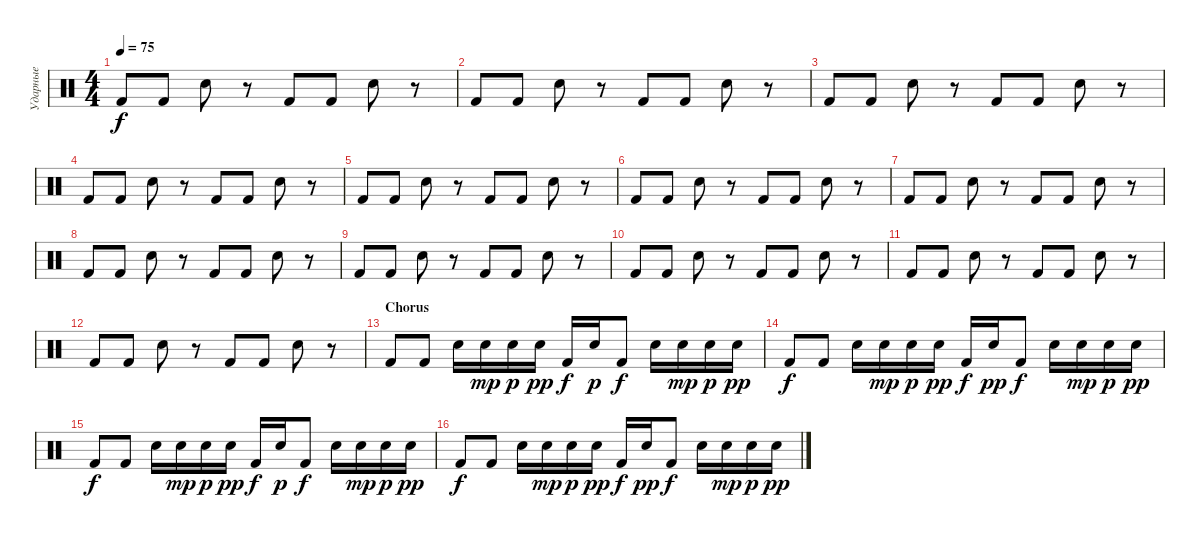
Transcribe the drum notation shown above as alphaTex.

\track ("Ударные" "Ударные") {instrument percussion}
\staff {score}
\articulation defaults
\ts (4 4)
\tempo 75
\clef neutral
\ks c "Kick (hit) 2".8{dy f} "Kick (hit) 2".8 "Snare (hit) 2".8
r.8 "Kick (hit) 2".8 "Kick (hit) 2".8 "Snare (hit) 2".8 r.8 |
"Kick (hit) 2".8 "Kick (hit) 2".8 "Snare (hit) 2".8 r.8 "Kick (hit) 2".8 "Kick (hit) 2".8 "Snare (hit) 2".8 r.8 |
"Kick (hit) 2".8 "Kick (hit) 2".8 "Snare (hit) 2".8 r.8 "Kick (hit) 2".8 "Kick (hit) 2".8 "Snare (hit) 2".8 r.8 |
"Kick (hit) 2".8 "Kick (hit) 2".8 "Snare (hit) 2".8 r.8 "Kick (hit) 2".8 "Kick (hit) 2".8 "Snare (hit) 2".8 r.8 |
"Kick (hit) 2".8 "Kick (hit) 2".8 "Snare (hit) 2".8 r.8 "Kick (hit) 2".8 "Kick (hit) 2".8 "Snare (hit) 2".8 r.8 |
"Kick (hit) 2".8 "Kick (hit) 2".8 "Snare (hit) 2".8 r.8 "Kick (hit) 2".8 "Kick (hit) 2".8 "Snare (hit) 2".8 r.8 |
"Kick (hit) 2".8 "Kick (hit) 2".8 "Snare (hit) 2".8 r.8 "Kick (hit) 2".8 "Kick (hit) 2".8 "Snare (hit) 2".8 r.8 |
"Kick (hit) 2".8 "Kick (hit) 2".8 "Snare (hit) 2".8 r.8 "Kick (hit) 2".8 "Kick (hit) 2".8 "Snare (hit) 2".8 r.8 |
"Kick (hit) 2".8 "Kick (hit) 2".8 "Snare (hit) 2".8 r.8 "Kick (hit) 2".8 "Kick (hit) 2".8 "Snare (hit) 2".8 r.8 |
"Kick (hit) 2".8 "Kick (hit) 2".8 "Snare (hit) 2".8 r.8 "Kick (hit) 2".8 "Kick (hit) 2".8 "Snare (hit) 2".8 r.8 |
"Kick (hit) 2".8 "Kick (hit) 2".8 "Snare (hit) 2".8 r.8 "Kick (hit) 2".8 "Kick (hit) 2".8 "Snare (hit) 2".8 r.8 |
"Kick (hit) 2".8 "Kick (hit) 2".8 "Snare (hit) 2".8 r.8 "Kick (hit) 2".8 "Kick (hit) 2".8 "Snare (hit) 2".8 r.8 |
\section ("" "Chorus")
"Kick (hit) 2".8 "Kick (hit) 2".8 "Snare (hit) 2".16 "Snare (hit) 2".16{dy mp} "Snare (hit) 2".16{dy p} "Snare (hit) 2".16{dy pp} "Kick (hit) 2".16{dy f} "Snare (hit) 2".16{dy p} "Kick (hit) 2".8{dy f} "Snare (hit) 2".16 "Snare (hit) 2".16{dy mp} "Snare (hit) 2".16{dy p} "Snare (hit) 2".16{dy pp} |
"Kick (hit) 2".8{dy f} "Kick (hit) 2".8 "Snare (hit) 2".16 "Snare (hit) 2".16{dy mp} "Snare (hit) 2".16{dy p} "Snare (hit) 2".16{dy pp} "Kick (hit) 2".16{dy f} "Snare (hit) 2".16{dy pp} "Kick (hit) 2".8{dy f} "Snare (hit) 2".16 "Snare (hit) 2".16{dy mp} "Snare (hit) 2".16{dy p} "Snare (hit) 2".16{dy pp} |
"Kick (hit) 2".8{dy f} "Kick (hit) 2".8 "Snare (hit) 2".16 "Snare (hit) 2".16{dy mp} "Snare (hit) 2".16{dy p} "Snare (hit) 2".16{dy pp} "Kick (hit) 2".16{dy f} "Snare (hit) 2".16{dy p} "Kick (hit) 2".8{dy f} "Snare (hit) 2".16 "Snare (hit) 2".16{dy mp} "Snare (hit) 2".16{dy p} "Snare (hit) 2".16{dy pp} |
"Kick (hit) 2".8{dy f} "Kick (hit) 2".8 "Snare (hit) 2".16 "Snare (hit) 2".16{dy mp} "Snare (hit) 2".16{dy p} "Snare (hit) 2".16{dy pp} "Kick (hit) 2".16{dy f} "Snare (hit) 2".16{dy pp} "Kick (hit) 2".8{dy f} "Snare (hit) 2".16 "Snare (hit) 2".16{dy mp} "Snare (hit) 2".16{dy p} "Snare (hit) 2".16{dy pp}
